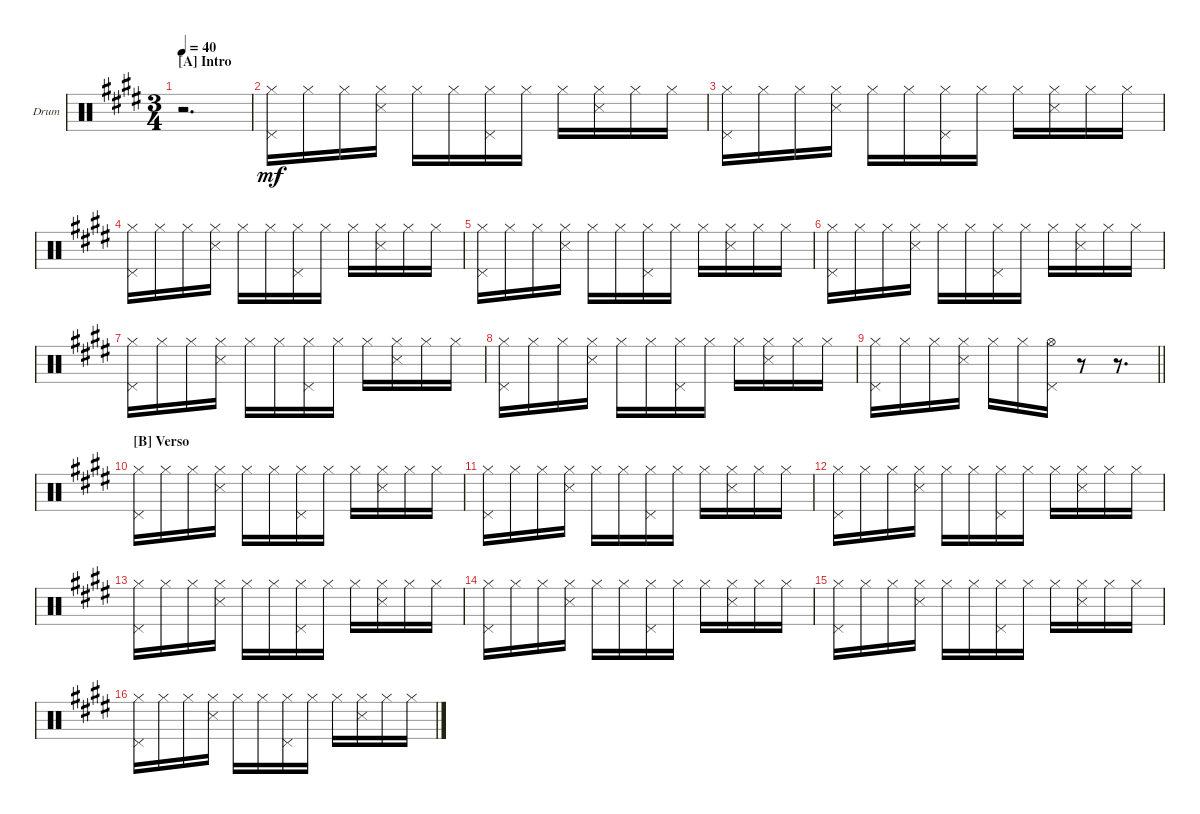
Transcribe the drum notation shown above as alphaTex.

\defaultSystemsLayout 4
\bracketExtendMode groupsimilarinstruments
\firstSystemTrackNameOrientation horizontal
\otherSystemsTrackNameOrientation horizontal
\track ("Drum" "Drum") {multiBarRest instrument percussion}
\staff {score}
\articulation defaults
\ts (3 4)
\section ("A" "Intro")
\tempo 40
\clef neutral
\ks c#minor
r.2{d dy mf} |
("Hi-Hat (closed)" "Pedal Hi-Hat (hit)").16 "Hi-Hat (closed)".16 "Hi-Hat (closed)".16 ("Hi-Hat (closed)" "Snare (side stick) 3").16 "Hi-Hat (closed)".16 "Hi-Hat (closed)".16 ("Hi-Hat (closed)" "Pedal Hi-Hat (hit)").16 "Hi-Hat (closed)".16 "Hi-Hat (closed)".16 ("Hi-Hat (closed)" "Snare (side stick) 3").16 "Hi-Hat (closed)".16 "Hi-Hat (closed)".16 |
("Hi-Hat (closed)" "Pedal Hi-Hat (hit)").16 "Hi-Hat (closed)".16 "Hi-Hat (closed)".16 ("Hi-Hat (closed)" "Snare (side stick) 3").16 "Hi-Hat (closed)".16 "Hi-Hat (closed)".16 ("Hi-Hat (closed)" "Pedal Hi-Hat (hit)").16 "Hi-Hat (closed)".16 "Hi-Hat (closed)".16 ("Hi-Hat (closed)" "Snare (side stick) 3").16 "Hi-Hat (closed)".16 "Hi-Hat (closed)".16 |
("Hi-Hat (closed)" "Pedal Hi-Hat (hit)").16 "Hi-Hat (closed)".16 "Hi-Hat (closed)".16 ("Hi-Hat (closed)" "Snare (side stick) 3").16 "Hi-Hat (closed)".16 "Hi-Hat (closed)".16 ("Hi-Hat (closed)" "Pedal Hi-Hat (hit)").16 "Hi-Hat (closed)".16 "Hi-Hat (closed)".16 ("Hi-Hat (closed)" "Snare (side stick) 3").16 "Hi-Hat (closed)".16 "Hi-Hat (closed)".16 |
("Hi-Hat (closed)" "Pedal Hi-Hat (hit)").16 "Hi-Hat (closed)".16 "Hi-Hat (closed)".16 ("Hi-Hat (closed)" "Snare (side stick) 3").16 "Hi-Hat (closed)".16 "Hi-Hat (closed)".16 ("Hi-Hat (closed)" "Pedal Hi-Hat (hit)").16 "Hi-Hat (closed)".16 "Hi-Hat (closed)".16 ("Hi-Hat (closed)" "Snare (side stick) 3").16 "Hi-Hat (closed)".16 "Hi-Hat (closed)".16 |
("Hi-Hat (closed)" "Pedal Hi-Hat (hit)").16 "Hi-Hat (closed)".16 "Hi-Hat (closed)".16 ("Hi-Hat (closed)" "Snare (side stick) 3").16 "Hi-Hat (closed)".16 "Hi-Hat (closed)".16 ("Hi-Hat (closed)" "Pedal Hi-Hat (hit)").16 "Hi-Hat (closed)".16 "Hi-Hat (closed)".16 ("Hi-Hat (closed)" "Snare (side stick) 3").16 "Hi-Hat (closed)".16 "Hi-Hat (closed)".16 |
("Hi-Hat (closed)" "Pedal Hi-Hat (hit)").16 "Hi-Hat (closed)".16 "Hi-Hat (closed)".16 ("Hi-Hat (closed)" "Snare (side stick) 3").16 "Hi-Hat (closed)".16 "Hi-Hat (closed)".16 ("Hi-Hat (closed)" "Pedal Hi-Hat (hit)").16 "Hi-Hat (closed)".16 "Hi-Hat (closed)".16 ("Hi-Hat (closed)" "Snare (side stick) 3").16 "Hi-Hat (closed)".16 "Hi-Hat (closed)".16 |
("Hi-Hat (closed)" "Pedal Hi-Hat (hit)").16 "Hi-Hat (closed)".16 "Hi-Hat (closed)".16 ("Hi-Hat (closed)" "Snare (side stick) 3").16 "Hi-Hat (closed)".16 "Hi-Hat (closed)".16 ("Hi-Hat (closed)" "Pedal Hi-Hat (hit)").16 "Hi-Hat (closed)".16 "Hi-Hat (closed)".16 ("Hi-Hat (closed)" "Snare (side stick) 3").16 "Hi-Hat (closed)".16 "Hi-Hat (closed)".16 |
\barLineRight lightlight
("Hi-Hat (closed)" "Pedal Hi-Hat (hit)").16 "Hi-Hat (closed)".16 "Hi-Hat (closed)".16 ("Hi-Hat (closed)" "Snare (side stick) 3").16 "Hi-Hat (closed)".16 "Hi-Hat (closed)".16 ("Pedal Hi-Hat (hit)" "Hi-Hat (open)").16 r.8 r.8{d} |
\section ("B" "Verso")
("Hi-Hat (closed)" "Pedal Hi-Hat (hit)").16 "Hi-Hat (closed)".16 "Hi-Hat (closed)".16 ("Hi-Hat (closed)" "Snare (side stick) 3").16 "Hi-Hat (closed)".16 "Hi-Hat (closed)".16 ("Hi-Hat (closed)" "Pedal Hi-Hat (hit)").16 "Hi-Hat (closed)".16 "Hi-Hat (closed)".16 ("Hi-Hat (closed)" "Snare (side stick) 3").16 "Hi-Hat (closed)".16 "Hi-Hat (closed)".16 |
("Hi-Hat (closed)" "Pedal Hi-Hat (hit)").16 "Hi-Hat (closed)".16 "Hi-Hat (closed)".16 ("Hi-Hat (closed)" "Snare (side stick) 3").16 "Hi-Hat (closed)".16 "Hi-Hat (closed)".16 ("Hi-Hat (closed)" "Pedal Hi-Hat (hit)").16 "Hi-Hat (closed)".16 "Hi-Hat (closed)".16 ("Hi-Hat (closed)" "Snare (side stick) 3").16 "Hi-Hat (closed)".16 "Hi-Hat (closed)".16 |
("Hi-Hat (closed)" "Pedal Hi-Hat (hit)").16 "Hi-Hat (closed)".16 "Hi-Hat (closed)".16 ("Hi-Hat (closed)" "Snare (side stick) 3").16 "Hi-Hat (closed)".16 "Hi-Hat (closed)".16 ("Hi-Hat (closed)" "Pedal Hi-Hat (hit)").16 "Hi-Hat (closed)".16 "Hi-Hat (closed)".16 ("Hi-Hat (closed)" "Snare (side stick) 3").16 "Hi-Hat (closed)".16 "Hi-Hat (closed)".16 |
("Hi-Hat (closed)" "Pedal Hi-Hat (hit)").16 "Hi-Hat (closed)".16 "Hi-Hat (closed)".16 ("Hi-Hat (closed)" "Snare (side stick) 3").16 "Hi-Hat (closed)".16 "Hi-Hat (closed)".16 ("Hi-Hat (closed)" "Pedal Hi-Hat (hit)").16 "Hi-Hat (closed)".16 "Hi-Hat (closed)".16 ("Hi-Hat (closed)" "Snare (side stick) 3").16 "Hi-Hat (closed)".16 "Hi-Hat (closed)".16 |
("Hi-Hat (closed)" "Pedal Hi-Hat (hit)").16 "Hi-Hat (closed)".16 "Hi-Hat (closed)".16 ("Hi-Hat (closed)" "Snare (side stick) 3").16 "Hi-Hat (closed)".16 "Hi-Hat (closed)".16 ("Hi-Hat (closed)" "Pedal Hi-Hat (hit)").16 "Hi-Hat (closed)".16 "Hi-Hat (closed)".16 ("Hi-Hat (closed)" "Snare (side stick) 3").16 "Hi-Hat (closed)".16 "Hi-Hat (closed)".16 |
("Hi-Hat (closed)" "Pedal Hi-Hat (hit)").16 "Hi-Hat (closed)".16 "Hi-Hat (closed)".16 ("Hi-Hat (closed)" "Snare (side stick) 3").16 "Hi-Hat (closed)".16 "Hi-Hat (closed)".16 ("Hi-Hat (closed)" "Pedal Hi-Hat (hit)").16 "Hi-Hat (closed)".16 "Hi-Hat (closed)".16 ("Hi-Hat (closed)" "Snare (side stick) 3").16 "Hi-Hat (closed)".16 "Hi-Hat (closed)".16 |
("Hi-Hat (closed)" "Pedal Hi-Hat (hit)").16 "Hi-Hat (closed)".16 "Hi-Hat (closed)".16 ("Hi-Hat (closed)" "Snare (side stick) 3").16 "Hi-Hat (closed)".16 "Hi-Hat (closed)".16 ("Hi-Hat (closed)" "Pedal Hi-Hat (hit)").16 "Hi-Hat (closed)".16 "Hi-Hat (closed)".16 ("Hi-Hat (closed)" "Snare (side stick) 3").16 "Hi-Hat (closed)".16 "Hi-Hat (closed)".16
